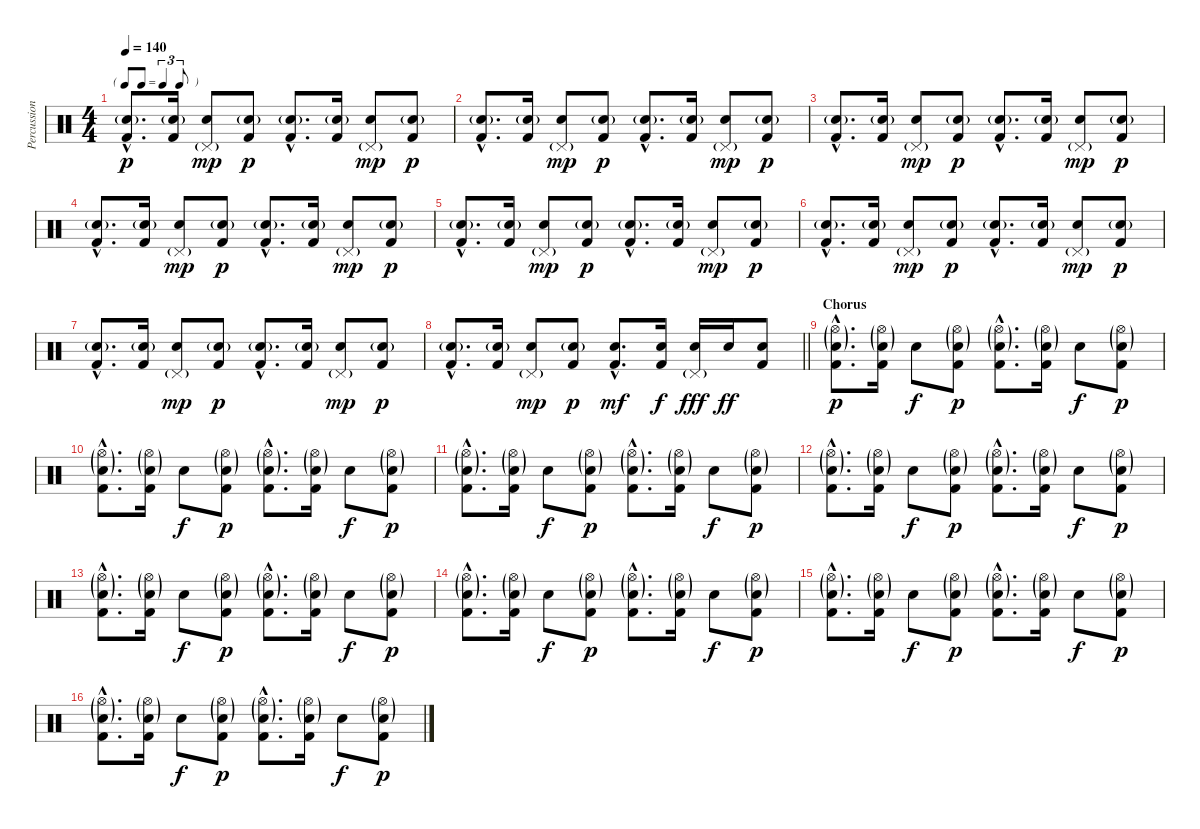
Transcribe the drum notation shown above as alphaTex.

\track ("Percussion" "Percussion") {instrument percussion}
\staff {score}
\articulation defaults
\ts (4 4)
\tf triplet8th
\tempo 140
\clef neutral
\ks c
("Snare (hit) 2"{g hac} "Kick (hit) 2"{hac}).8{d dy p} ("Snare (hit) 2"{g} "Kick (hit) 2").16 ("Pedal Hi-Hat (hit)"{g} "Snare (hit) 2").8{dy mp} ("Snare (hit) 2"{g} "Kick (hit) 2").8{dy p} ("Snare (hit) 2"{g hac} "Kick (hit) 2"{hac}).8{d} ("Snare (hit) 2"{g} "Kick (hit) 2").16 ("Pedal Hi-Hat (hit)"{g} "Snare (hit) 2").8{dy mp} ("Snare (hit) 2"{g} "Kick (hit) 2").8{dy p} |
("Snare (hit) 2"{g hac} "Kick (hit) 2"{hac}).8{d} ("Snare (hit) 2"{g} "Kick (hit) 2").16 ("Pedal Hi-Hat (hit)"{g} "Snare (hit) 2").8{dy mp} ("Snare (hit) 2"{g} "Kick (hit) 2").8{dy p} ("Snare (hit) 2"{g hac} "Kick (hit) 2"{hac}).8{d} ("Snare (hit) 2"{g} "Kick (hit) 2").16 ("Pedal Hi-Hat (hit)"{g} "Snare (hit) 2").8{dy mp} ("Snare (hit) 2"{g} "Kick (hit) 2").8{dy p} |
("Snare (hit) 2"{g hac} "Kick (hit) 2"{hac}).8{d} ("Snare (hit) 2"{g} "Kick (hit) 2").16 ("Pedal Hi-Hat (hit)"{g} "Snare (hit) 2").8{dy mp} ("Snare (hit) 2"{g} "Kick (hit) 2").8{dy p} ("Snare (hit) 2"{g hac} "Kick (hit) 2"{hac}).8{d} ("Snare (hit) 2"{g} "Kick (hit) 2").16 ("Pedal Hi-Hat (hit)"{g} "Snare (hit) 2").8{dy mp} ("Snare (hit) 2"{g} "Kick (hit) 2").8{dy p} |
("Snare (hit) 2"{g hac} "Kick (hit) 2"{hac}).8{d} ("Snare (hit) 2"{g} "Kick (hit) 2").16 ("Pedal Hi-Hat (hit)"{g} "Snare (hit) 2").8{dy mp} ("Snare (hit) 2"{g} "Kick (hit) 2").8{dy p} ("Snare (hit) 2"{g hac} "Kick (hit) 2"{hac}).8{d} ("Snare (hit) 2"{g} "Kick (hit) 2").16 ("Pedal Hi-Hat (hit)"{g} "Snare (hit) 2").8{dy mp} ("Snare (hit) 2"{g} "Kick (hit) 2").8{dy p} |
("Snare (hit) 2"{g hac} "Kick (hit) 2"{hac}).8{d} ("Snare (hit) 2"{g} "Kick (hit) 2").16 ("Pedal Hi-Hat (hit)"{g} "Snare (hit) 2").8{dy mp} ("Snare (hit) 2"{g} "Kick (hit) 2").8{dy p} ("Snare (hit) 2"{g hac} "Kick (hit) 2"{hac}).8{d} ("Snare (hit) 2"{g} "Kick (hit) 2").16 ("Pedal Hi-Hat (hit)"{g} "Snare (hit) 2").8{dy mp} ("Snare (hit) 2"{g} "Kick (hit) 2").8{dy p} |
("Snare (hit) 2"{g hac} "Kick (hit) 2"{hac}).8{d} ("Snare (hit) 2"{g} "Kick (hit) 2").16 ("Pedal Hi-Hat (hit)"{g} "Snare (hit) 2").8{dy mp} ("Snare (hit) 2"{g} "Kick (hit) 2").8{dy p} ("Snare (hit) 2"{g hac} "Kick (hit) 2"{hac}).8{d} ("Snare (hit) 2"{g} "Kick (hit) 2").16 ("Pedal Hi-Hat (hit)"{g} "Snare (hit) 2").8{dy mp} ("Snare (hit) 2"{g} "Kick (hit) 2").8{dy p} |
("Snare (hit) 2"{g hac} "Kick (hit) 2"{hac}).8{d} ("Snare (hit) 2"{g} "Kick (hit) 2").16 ("Pedal Hi-Hat (hit)"{g} "Snare (hit) 2").8{dy mp} ("Snare (hit) 2"{g} "Kick (hit) 2").8{dy p} ("Snare (hit) 2"{g hac} "Kick (hit) 2"{hac}).8{d} ("Snare (hit) 2"{g} "Kick (hit) 2").16 ("Pedal Hi-Hat (hit)"{g} "Snare (hit) 2").8{dy mp} ("Snare (hit) 2"{g} "Kick (hit) 2").8{dy p} |
\barLineRight lightlight
("Snare (hit) 2"{g hac} "Kick (hit) 2"{hac}).8{d} ("Snare (hit) 2"{g} "Kick (hit) 2").16 ("Pedal Hi-Hat (hit)"{g} "Snare (hit) 2").8{dy mp} ("Snare (hit) 2"{g} "Kick (hit) 2").8{dy p} ("Snare (hit) 2"{hac} "Kick (hit) 2"{hac}).8{d dy mf} ("Snare (hit) 2" "Kick (hit) 2").16{dy f} ("Pedal Hi-Hat (hit)"{g} "Snare (hit) 2").16{dy fff} "Snare (hit) 2".16{dy ff} ("Snare (hit) 2" "Kick (hit) 2").8 |
\section ("" "Chorus")
("Hi-Hat (open)"{g hac} "Snare (hit) 2"{g hac} "Kick (hit) 2"{hac}).8{d dy p} ("Hi-Hat (open)"{g} "Snare (hit) 2"{g} "Kick (hit) 2").16 "Snare (hit) 2".8{dy f} ("Hi-Hat (open)"{g} "Snare (hit) 2"{g} "Kick (hit) 2").8{dy p} ("Hi-Hat (open)"{g hac} "Snare (hit) 2"{g hac} "Kick (hit) 2"{hac}).8{d} ("Hi-Hat (open)"{g} "Snare (hit) 2"{g} "Kick (hit) 2").16 "Snare (hit) 2".8{dy f} ("Hi-Hat (open)"{g} "Snare (hit) 2"{g} "Kick (hit) 2").8{dy p} |
("Hi-Hat (open)"{g hac} "Snare (hit) 2"{g hac} "Kick (hit) 2"{hac}).8{d} ("Hi-Hat (open)"{g} "Snare (hit) 2"{g} "Kick (hit) 2").16 "Snare (hit) 2".8{dy f} ("Hi-Hat (open)"{g} "Snare (hit) 2"{g} "Kick (hit) 2").8{dy p} ("Hi-Hat (open)"{g hac} "Snare (hit) 2"{g hac} "Kick (hit) 2"{hac}).8{d} ("Hi-Hat (open)"{g} "Snare (hit) 2"{g} "Kick (hit) 2").16 "Snare (hit) 2".8{dy f} ("Hi-Hat (open)"{g} "Snare (hit) 2"{g} "Kick (hit) 2").8{dy p} |
("Hi-Hat (open)"{g hac} "Snare (hit) 2"{g hac} "Kick (hit) 2"{hac}).8{d} ("Hi-Hat (open)"{g} "Snare (hit) 2"{g} "Kick (hit) 2").16 "Snare (hit) 2".8{dy f} ("Hi-Hat (open)"{g} "Snare (hit) 2"{g} "Kick (hit) 2").8{dy p} ("Hi-Hat (open)"{g hac} "Snare (hit) 2"{g hac} "Kick (hit) 2"{hac}).8{d} ("Hi-Hat (open)"{g} "Snare (hit) 2"{g} "Kick (hit) 2").16 "Snare (hit) 2".8{dy f} ("Hi-Hat (open)"{g} "Snare (hit) 2"{g} "Kick (hit) 2").8{dy p} |
("Hi-Hat (open)"{g hac} "Snare (hit) 2"{g hac} "Kick (hit) 2"{hac}).8{d} ("Hi-Hat (open)"{g} "Snare (hit) 2"{g} "Kick (hit) 2").16 "Snare (hit) 2".8{dy f} ("Hi-Hat (open)"{g} "Snare (hit) 2"{g} "Kick (hit) 2").8{dy p} ("Hi-Hat (open)"{g hac} "Snare (hit) 2"{g hac} "Kick (hit) 2"{hac}).8{d} ("Hi-Hat (open)"{g} "Snare (hit) 2"{g} "Kick (hit) 2").16 "Snare (hit) 2".8{dy f} ("Hi-Hat (open)"{g} "Snare (hit) 2"{g} "Kick (hit) 2").8{dy p} |
("Hi-Hat (open)"{g hac} "Snare (hit) 2"{g hac} "Kick (hit) 2"{hac}).8{d} ("Hi-Hat (open)"{g} "Snare (hit) 2"{g} "Kick (hit) 2").16 "Snare (hit) 2".8{dy f} ("Hi-Hat (open)"{g} "Snare (hit) 2"{g} "Kick (hit) 2").8{dy p} ("Hi-Hat (open)"{g hac} "Snare (hit) 2"{g hac} "Kick (hit) 2"{hac}).8{d} ("Hi-Hat (open)"{g} "Snare (hit) 2"{g} "Kick (hit) 2").16 "Snare (hit) 2".8{dy f} ("Hi-Hat (open)"{g} "Snare (hit) 2"{g} "Kick (hit) 2").8{dy p} |
("Hi-Hat (open)"{g hac} "Snare (hit) 2"{g hac} "Kick (hit) 2"{hac}).8{d} ("Hi-Hat (open)"{g} "Snare (hit) 2"{g} "Kick (hit) 2").16 "Snare (hit) 2".8{dy f} ("Hi-Hat (open)"{g} "Snare (hit) 2"{g} "Kick (hit) 2").8{dy p} ("Hi-Hat (open)"{g hac} "Snare (hit) 2"{g hac} "Kick (hit) 2"{hac}).8{d} ("Hi-Hat (open)"{g} "Snare (hit) 2"{g} "Kick (hit) 2").16 "Snare (hit) 2".8{dy f} ("Hi-Hat (open)"{g} "Snare (hit) 2"{g} "Kick (hit) 2").8{dy p} |
("Hi-Hat (open)"{g hac} "Snare (hit) 2"{g hac} "Kick (hit) 2"{hac}).8{d} ("Hi-Hat (open)"{g} "Snare (hit) 2"{g} "Kick (hit) 2").16 "Snare (hit) 2".8{dy f} ("Hi-Hat (open)"{g} "Snare (hit) 2"{g} "Kick (hit) 2").8{dy p} ("Hi-Hat (open)"{g hac} "Snare (hit) 2"{g hac} "Kick (hit) 2"{hac}).8{d} ("Hi-Hat (open)"{g} "Snare (hit) 2"{g} "Kick (hit) 2").16 "Snare (hit) 2".8{dy f} ("Hi-Hat (open)"{g} "Snare (hit) 2"{g} "Kick (hit) 2").8{dy p} |
("Hi-Hat (open)"{g hac} "Snare (hit) 2"{g hac} "Kick (hit) 2"{hac}).8{d} ("Hi-Hat (open)"{g} "Snare (hit) 2"{g} "Kick (hit) 2").16 "Snare (hit) 2".8{dy f} ("Hi-Hat (open)"{g} "Snare (hit) 2"{g} "Kick (hit) 2").8{dy p} ("Hi-Hat (open)"{g hac} "Snare (hit) 2"{g hac} "Kick (hit) 2"{hac}).8{d} ("Hi-Hat (open)"{g} "Snare (hit) 2"{g} "Kick (hit) 2").16 "Snare (hit) 2".8{dy f} ("Hi-Hat (open)"{g} "Snare (hit) 2"{g} "Kick (hit) 2").8{dy p}
